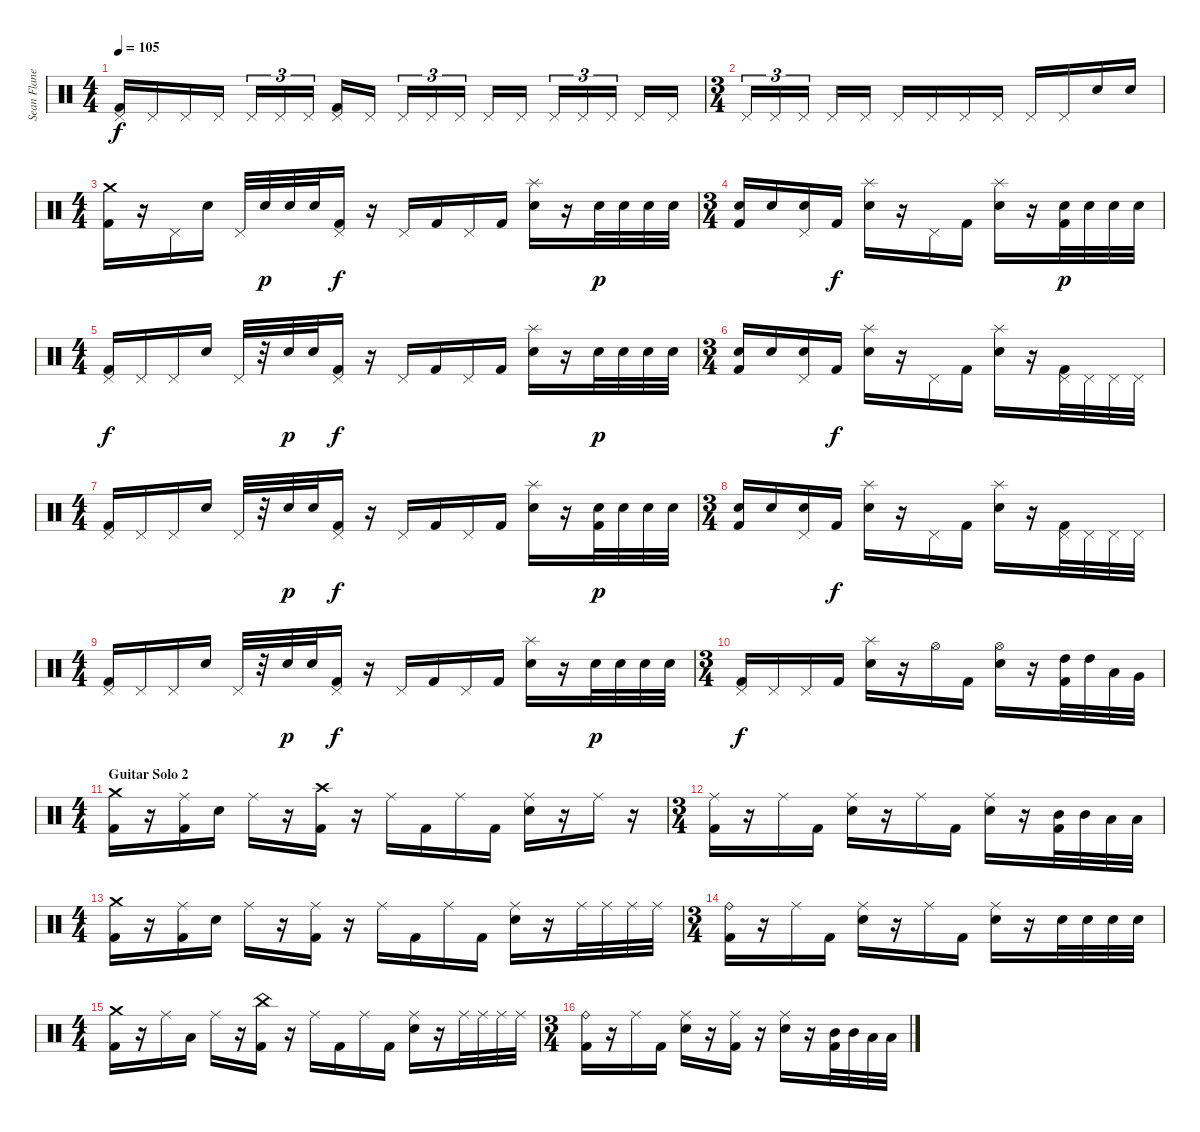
\track ("Sean Flanegan [Drums]" "Sean Flane") {instrument percussion}
\staff {score}
\articulation defaults
\ts (4 4)
\tempo 105
\clef neutral
\ks c
("Pedal Hi-Hat (hit)" "Kick (hit) 2").16{dy f} "Pedal Hi-Hat (hit)".16 "Pedal Hi-Hat (hit)".16 "Pedal Hi-Hat (hit)".16 "Pedal Hi-Hat (hit)".16{tu (3 2)} "Pedal Hi-Hat (hit)".16{tu (3 2)} "Pedal Hi-Hat (hit)".16{tu (3 2)} ("Pedal Hi-Hat (hit)" "Kick (hit) 2").16 "Pedal Hi-Hat (hit)".16 "Pedal Hi-Hat (hit)".16{tu (3 2)} "Pedal Hi-Hat (hit)".16{tu (3 2)} "Pedal Hi-Hat (hit)".16{tu (3 2)} "Pedal Hi-Hat (hit)".16 "Pedal Hi-Hat (hit)".16 "Pedal Hi-Hat (hit)".16{tu (3 2)} "Pedal Hi-Hat (hit)".16{tu (3 2)} "Pedal Hi-Hat (hit)".16{tu (3 2)} "Pedal Hi-Hat (hit)".16 "Pedal Hi-Hat (hit)".16 |
\ts (3 4)
"Pedal Hi-Hat (hit)".16{tu (3 2)} "Pedal Hi-Hat (hit)".16{tu (3 2)} "Pedal Hi-Hat (hit)".16{tu (3 2)} "Pedal Hi-Hat (hit)".16 "Pedal Hi-Hat (hit)".16 "Pedal Hi-Hat (hit)".16 "Pedal Hi-Hat (hit)".16 "Pedal Hi-Hat (hit)".16 "Pedal Hi-Hat (hit)".16 "Pedal Hi-Hat (hit)".16 "Pedal Hi-Hat (hit)".16 "Electric Snare (hit)".16 "Electric Snare (hit)".16 |
\ts (4 4)
("Crash medium (hit)" "Kick (hit) 2").16 r.16 "Pedal Hi-Hat (hit)".16 "Electric Snare (hit)".16 "Pedal Hi-Hat (hit)".32 "Electric Snare (hit)".32{dy p} "Electric Snare (hit)".32 "Electric Snare (hit)".32 ("Pedal Hi-Hat (hit)" "Kick (hit) 2").16{dy f} r.16 "Pedal Hi-Hat (hit)".16 "Kick (hit) 2".16 "Pedal Hi-Hat (hit)".16 "Kick (hit) 2".16 ("Splash (hit)" "Electric Snare (hit)").16 r.16 "Electric Snare (hit)".32{dy p} "Electric Snare (hit)".32 "Electric Snare (hit)".32 "Electric Snare (hit)".32 |
\ts (3 4)
("Electric Snare (hit)" "Kick (hit) 2").16 "Electric Snare (hit)".16 ("Pedal Hi-Hat (hit)" "Electric Snare (hit)").16 "Kick (hit) 2".16{dy f} ("Splash (hit)" "Electric Snare (hit)").16 r.16 "Pedal Hi-Hat (hit)".16 "Kick (hit) 2".16 ("Splash (hit)" "Electric Snare (hit)").16 r.16 ("Electric Snare (hit)" "Kick (hit) 2").32{dy p} "Electric Snare (hit)".32 "Electric Snare (hit)".32 "Electric Snare (hit)".32 |
\ts (4 4)
("Pedal Hi-Hat (hit)" "Kick (hit) 2").16{dy f} "Pedal Hi-Hat (hit)".16 "Pedal Hi-Hat (hit)".16 "Electric Snare (hit)".16 "Pedal Hi-Hat (hit)".32 r.32 "Electric Snare (hit)".32{dy p} "Electric Snare (hit)".32 ("Pedal Hi-Hat (hit)" "Kick (hit) 2").16{dy f} r.16 "Pedal Hi-Hat (hit)".16 "Kick (hit) 2".16 "Pedal Hi-Hat (hit)".16 "Kick (hit) 2".16 ("Splash (hit)" "Electric Snare (hit)").16 r.16 "Electric Snare (hit)".32{dy p} "Electric Snare (hit)".32 "Electric Snare (hit)".32 "Electric Snare (hit)".32 |
\ts (3 4)
("Electric Snare (hit)" "Kick (hit) 2").16 "Electric Snare (hit)".16 ("Pedal Hi-Hat (hit)" "Electric Snare (hit)").16 "Kick (hit) 2".16{dy f} ("Splash (hit)" "Electric Snare (hit)").16 r.16 "Pedal Hi-Hat (hit)".16 "Kick (hit) 2".16 ("Splash (hit)" "Electric Snare (hit)").16 r.16 ("Pedal Hi-Hat (hit)" "Kick (hit) 2").32 "Pedal Hi-Hat (hit)".32 "Pedal Hi-Hat (hit)".32 "Pedal Hi-Hat (hit)".32 |
\ts (4 4)
("Pedal Hi-Hat (hit)" "Kick (hit) 2").16 "Pedal Hi-Hat (hit)".16 "Pedal Hi-Hat (hit)".16 "Electric Snare (hit)".16 "Pedal Hi-Hat (hit)".32 r.32 "Electric Snare (hit)".32{dy p} "Electric Snare (hit)".32 ("Pedal Hi-Hat (hit)" "Kick (hit) 2").16{dy f} r.16 "Pedal Hi-Hat (hit)".16 "Kick (hit) 2".16 "Pedal Hi-Hat (hit)".16 "Kick (hit) 2".16 ("Splash (hit)" "Electric Snare (hit)").16 r.16 ("Electric Snare (hit)" "Kick (hit) 2").32{dy p} "Electric Snare (hit)".32 "Electric Snare (hit)".32 "Electric Snare (hit)".32 |
\ts (3 4)
("Electric Snare (hit)" "Kick (hit) 2").16 "Electric Snare (hit)".16 ("Pedal Hi-Hat (hit)" "Electric Snare (hit)").16 "Kick (hit) 2".16{dy f} ("Splash (hit)" "Electric Snare (hit)").16 r.16 "Pedal Hi-Hat (hit)".16 "Kick (hit) 2".16 ("Splash (hit)" "Electric Snare (hit)").16 r.16 ("Pedal Hi-Hat (hit)" "Kick (hit) 2").32 "Pedal Hi-Hat (hit)".32 "Pedal Hi-Hat (hit)".32 "Pedal Hi-Hat (hit)".32 |
\ts (4 4)
("Pedal Hi-Hat (hit)" "Kick (hit) 2").16 "Pedal Hi-Hat (hit)".16 "Pedal Hi-Hat (hit)".16 "Electric Snare (hit)".16 "Pedal Hi-Hat (hit)".32 r.32 "Electric Snare (hit)".32{dy p} "Electric Snare (hit)".32 ("Pedal Hi-Hat (hit)" "Kick (hit) 2").16{dy f} r.16 "Pedal Hi-Hat (hit)".16 "Kick (hit) 2".16 "Pedal Hi-Hat (hit)".16 "Kick (hit) 2".16 ("Splash (hit)" "Electric Snare (hit)").16 r.16 "Electric Snare (hit)".32{dy p} "Electric Snare (hit)".32 "Electric Snare (hit)".32 "Electric Snare (hit)".32 |
\ts (3 4)
("Pedal Hi-Hat (hit)" "Kick (hit) 2").16{dy f} "Pedal Hi-Hat (hit)".16 "Pedal Hi-Hat (hit)".16 "Kick (hit) 2".16 ("Splash (hit)" "Electric Snare (hit)").16 r.16 "Hi-Hat (open)".16 "Kick (hit) 2".16 ("Hi-Hat (open)" "Electric Snare (hit)").16 r.16 ("High Tom (hit)" "Kick (hit) 2").32 "High Tom (hit)".32 "Low Tom (hit)".32 "Very Low Tom (hit)".32 |
\ts (4 4)
\section ("" "Guitar Solo 2")
("Crash medium (hit)" "Kick (hit) 2").16 r.16 ("Ride (middle)" "Kick (hit) 2").16 "Electric Snare (hit)".16 "Ride (middle)".16 r.16 ("Crash high (hit)" "Kick (hit) 2").16 r.16 "Ride (middle)".16 "Kick (hit) 2".16 "Ride (middle)".16 "Kick (hit) 2".16 ("Ride (middle)" "Electric Snare (hit)").16 r.16 "Ride (middle)".16 r.16 |
\ts (3 4)
("Ride (middle)" "Kick (hit) 2").16 r.16 "Ride (middle)".16 "Kick (hit) 2".16 ("Ride (middle)" "Electric Snare (hit)").16 r.16 "Ride (middle)".16 "Kick (hit) 2".16 ("Ride (middle)" "Electric Snare (hit)").16 r.16 ("Mid Tom (hit)" "Kick (hit) 2").32 "Mid Tom (hit)".32 "Low Tom (hit)".32 "Low Tom (hit)".32 |
\ts (4 4)
("Crash medium (hit)" "Kick (hit) 2").16 r.16 ("Ride (middle)" "Kick (hit) 2").16 "Electric Snare (hit)".16 "Ride (middle)".16 r.16 ("Ride (middle)" "Kick (hit) 2").16 r.16 "Ride (middle)".16 "Kick (hit) 2".16 "Ride (middle)".16 "Kick (hit) 2".16 ("Ride (middle)" "Electric Snare (hit)").16 r.16 "Ride (middle)".32 "Ride (middle)".32 "Ride (middle)".32 "Ride (middle)".32 |
\ts (3 4)
("Ride (bell)" "Kick (hit) 2").16 r.16 "Ride (middle)".16 "Kick (hit) 2".16 ("Ride (middle)" "Electric Snare (hit)").16 r.16 "Ride (middle)".16 "Kick (hit) 2".16 ("Ride (middle)" "Electric Snare (hit)").16 r.16 "Electric Snare (hit)".32 "Electric Snare (hit)".32 "Electric Snare (hit)".32 "Electric Snare (hit)".32 |
\ts (4 4)
("Crash medium (hit)" "Kick (hit) 2").16 r.16 "Ride (middle)".16 "Low Tom (hit)".16 "Ride (middle)".16 r.16 ("China (hit)" "Kick (hit) 2").16 r.16 "Ride (middle)".16 "Kick (hit) 2".16 "Ride (middle)".16 "Kick (hit) 2".16 ("Ride (middle)" "Electric Snare (hit)").16 r.16 "Ride (middle)".32 "Ride (middle)".32 "Ride (middle)".32 "Ride (middle)".32 |
\ts (3 4)
("Ride (bell)" "Kick (hit) 2").16 r.16 "Ride (middle)".16 "Kick (hit) 2".16 ("Ride (middle)" "Electric Snare (hit)").16 r.16 ("Ride (middle)" "Kick (hit) 2").16 r.16 ("Ride (middle)" "Electric Snare (hit)").16 r.16 ("Mid Tom (hit)" "Kick (hit) 2").32 "Mid Tom (hit)".32 "Low Tom (hit)".32 "Low Tom (hit)".32
